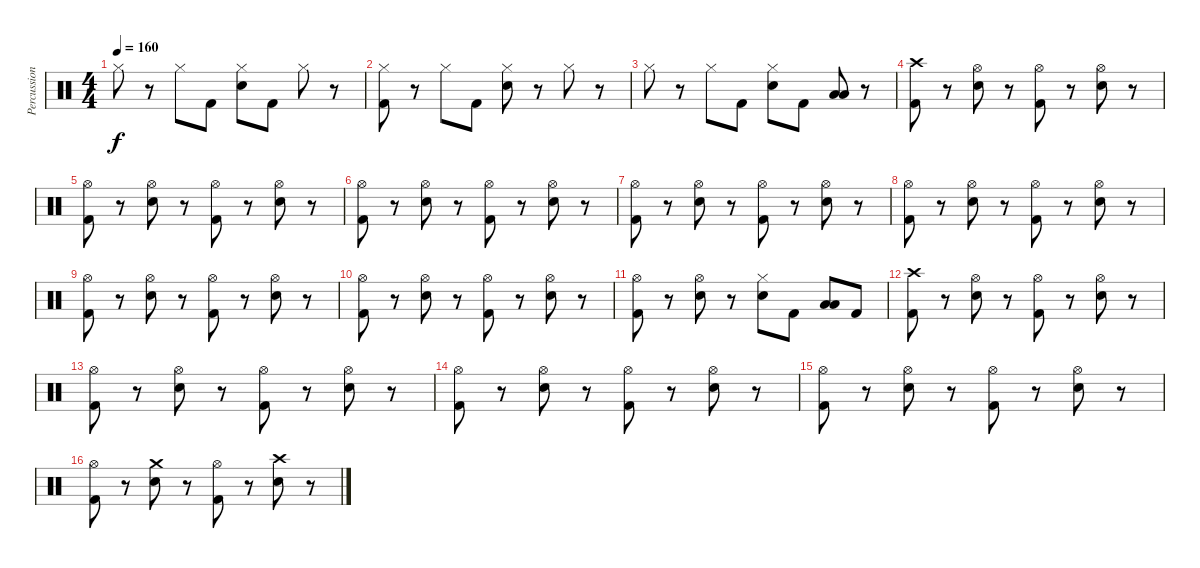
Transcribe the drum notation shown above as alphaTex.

\track ("Percussion" "Percussion") {instrument percussion}
\staff {score}
\articulation defaults
\ts (4 4)
\tempo 160
\clef neutral
\ks c "Hi-Hat (closed)".8{dy f}
r.8 "Hi-Hat (closed)".8 "Kick (hit) 2".8 ("Hi-Hat (closed)" "Snare (hit) 2").8 "Kick (hit) 2".8 "Hi-Hat (closed)".8 r.8 |
("Hi-Hat (closed)" "Kick (hit) 2").8 r.8 "Hi-Hat (closed)".8 "Kick (hit) 2".8 ("Hi-Hat (closed)" "Snare (hit) 2").8 r.8 "Hi-Hat (closed)".8 r.8 |
"Hi-Hat (closed)".8 r.8 "Hi-Hat (closed)".8 "Kick (hit) 2".8 ("Hi-Hat (closed)" "Snare (hit) 2").8 "Kick (hit) 2".8 ("Low Tom (hit)" "Low Floor Tom (hit)").8 r.8 |
("Crash high (hit)" "Kick (hit) 2").8 r.8 ("Hi-Hat (open)" "Snare (hit) 2").8 r.8 ("Hi-Hat (open)" "Kick (hit) 2").8 r.8 ("Hi-Hat (open)" "Snare (hit) 2").8 r.8 |
("Hi-Hat (open)" "Kick (hit) 2").8 r.8 ("Hi-Hat (open)" "Snare (hit) 2").8 r.8 ("Hi-Hat (open)" "Kick (hit) 2").8 r.8 ("Hi-Hat (open)" "Snare (hit) 2").8 r.8 |
("Hi-Hat (open)" "Kick (hit) 2").8 r.8 ("Hi-Hat (open)" "Snare (hit) 2").8 r.8 ("Hi-Hat (open)" "Kick (hit) 2").8 r.8 ("Hi-Hat (open)" "Snare (hit) 2").8 r.8 |
("Hi-Hat (open)" "Kick (hit) 2").8 r.8 ("Hi-Hat (open)" "Snare (hit) 2").8 r.8 ("Hi-Hat (open)" "Kick (hit) 2").8 r.8 ("Hi-Hat (open)" "Snare (hit) 2").8 r.8 |
("Hi-Hat (open)" "Kick (hit) 2").8 r.8 ("Hi-Hat (open)" "Snare (hit) 2").8 r.8 ("Hi-Hat (open)" "Kick (hit) 2").8 r.8 ("Hi-Hat (open)" "Snare (hit) 2").8 r.8 |
("Hi-Hat (open)" "Kick (hit) 2").8 r.8 ("Hi-Hat (open)" "Snare (hit) 2").8 r.8 ("Hi-Hat (open)" "Kick (hit) 2").8 r.8 ("Hi-Hat (open)" "Snare (hit) 2").8 r.8 |
("Hi-Hat (open)" "Kick (hit) 2").8 r.8 ("Hi-Hat (open)" "Snare (hit) 2").8 r.8 ("Hi-Hat (open)" "Kick (hit) 2").8 r.8 ("Hi-Hat (open)" "Snare (hit) 2").8 r.8 |
("Hi-Hat (open)" "Kick (hit) 2").8 r.8 ("Hi-Hat (open)" "Snare (hit) 2").8 r.8 ("Hi-Hat (closed)" "Snare (hit) 2").8 "Kick (hit) 2".8 ("Low Tom (hit)" "Low Floor Tom (hit)").8 "Kick (hit) 2".8 |
("Crash high (hit)" "Kick (hit) 2").8 r.8 ("Hi-Hat (open)" "Snare (hit) 2").8 r.8 ("Hi-Hat (open)" "Kick (hit) 2").8 r.8 ("Hi-Hat (open)" "Snare (hit) 2").8 r.8 |
("Hi-Hat (open)" "Kick (hit) 2").8 r.8 ("Hi-Hat (open)" "Snare (hit) 2").8 r.8 ("Hi-Hat (open)" "Kick (hit) 2").8 r.8 ("Hi-Hat (open)" "Snare (hit) 2").8 r.8 |
("Hi-Hat (open)" "Kick (hit) 2").8 r.8 ("Hi-Hat (open)" "Snare (hit) 2").8 r.8 ("Hi-Hat (open)" "Kick (hit) 2").8 r.8 ("Hi-Hat (open)" "Snare (hit) 2").8 r.8 |
("Hi-Hat (open)" "Kick (hit) 2").8 r.8 ("Hi-Hat (open)" "Snare (hit) 2").8 r.8 ("Hi-Hat (open)" "Kick (hit) 2").8 r.8 ("Hi-Hat (open)" "Snare (hit) 2").8 r.8 |
("Hi-Hat (open)" "Kick (hit) 2").8 r.8 ("Crash medium (hit)" "Snare (hit) 2").8 r.8 ("Hi-Hat (open)" "Kick (hit) 2").8 r.8 ("Crash high (hit)" "Snare (hit) 2").8 r.8
